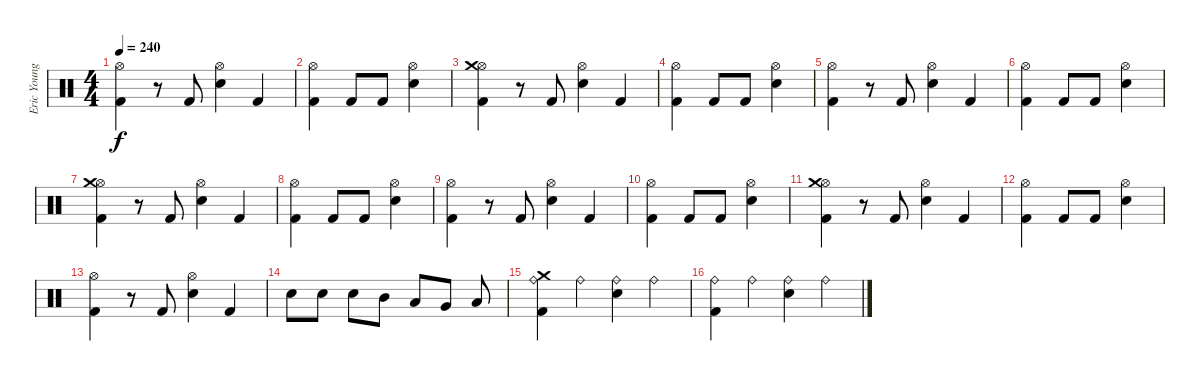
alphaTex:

\track ("Eric Young (Drums)" "Eric Young") {instrument percussion}
\staff {score}
\articulation defaults
\ts (4 4)
\tempo 240
\clef neutral
\ks c
("Hi-Hat (open)" "Kick (hit) 2").4{dy f} r.8 "Kick (hit) 2".8 ("Hi-Hat (open)" "Snare (hit) 2").4 "Kick (hit) 2".4 |
("Hi-Hat (open)" "Kick (hit) 2").4 "Kick (hit) 2".8 "Kick (hit) 2".8 ("Hi-Hat (open)" "Snare (hit) 2").4 |
("Hi-Hat (open)" "Kick (hit) 2" "Crash medium (hit)").4 r.8 "Kick (hit) 2".8 ("Hi-Hat (open)" "Snare (hit) 2").4 "Kick (hit) 2".4 |
("Hi-Hat (open)" "Kick (hit) 2").4 "Kick (hit) 2".8 "Kick (hit) 2".8 ("Hi-Hat (open)" "Snare (hit) 2").4 |
("Hi-Hat (open)" "Kick (hit) 2").4 r.8 "Kick (hit) 2".8 ("Hi-Hat (open)" "Snare (hit) 2").4 "Kick (hit) 2".4 |
("Hi-Hat (open)" "Kick (hit) 2").4 "Kick (hit) 2".8 "Kick (hit) 2".8 ("Hi-Hat (open)" "Snare (hit) 2").4 |
("Hi-Hat (open)" "Kick (hit) 2" "Crash medium (hit)").4 r.8 "Kick (hit) 2".8 ("Hi-Hat (open)" "Snare (hit) 2").4 "Kick (hit) 2".4 |
("Hi-Hat (open)" "Kick (hit) 2").4 "Kick (hit) 2".8 "Kick (hit) 2".8 ("Hi-Hat (open)" "Snare (hit) 2").4 |
("Hi-Hat (open)" "Kick (hit) 2").4 r.8 "Kick (hit) 2".8 ("Hi-Hat (open)" "Snare (hit) 2").4 "Kick (hit) 2".4 |
("Hi-Hat (open)" "Kick (hit) 2").4 "Kick (hit) 2".8 "Kick (hit) 2".8 ("Hi-Hat (open)" "Snare (hit) 2").4 |
("Hi-Hat (open)" "Kick (hit) 2" "Crash medium (hit)").4 r.8 "Kick (hit) 2".8 ("Hi-Hat (open)" "Snare (hit) 2").4 "Kick (hit) 2".4 |
("Hi-Hat (open)" "Kick (hit) 2").4 "Kick (hit) 2".8 "Kick (hit) 2".8 ("Hi-Hat (open)" "Snare (hit) 2").4 |
("Hi-Hat (open)" "Kick (hit) 2").4 r.8 "Kick (hit) 2".8 ("Hi-Hat (open)" "Snare (hit) 2").4 "Kick (hit) 2".4 |
"Snare (hit) 2".8 "Snare (hit) 2".8 "Snare (hit) 2".8 "Mid Tom (hit)".8 "Low Tom (hit)".8 "Very Low Tom (hit)".8 "Low Floor Tom (hit)".8 |
("Ride (bell)" "Kick (hit) 2" "Crash medium (hit)").4 "Ride (bell)".4 ("Ride (bell)" "Snare (hit) 2").4 "Ride (bell)".4 |
("Ride (bell)" "Kick (hit) 2").4 "Ride (bell)".4 ("Ride (bell)" "Snare (hit) 2").4 "Ride (bell)".4
